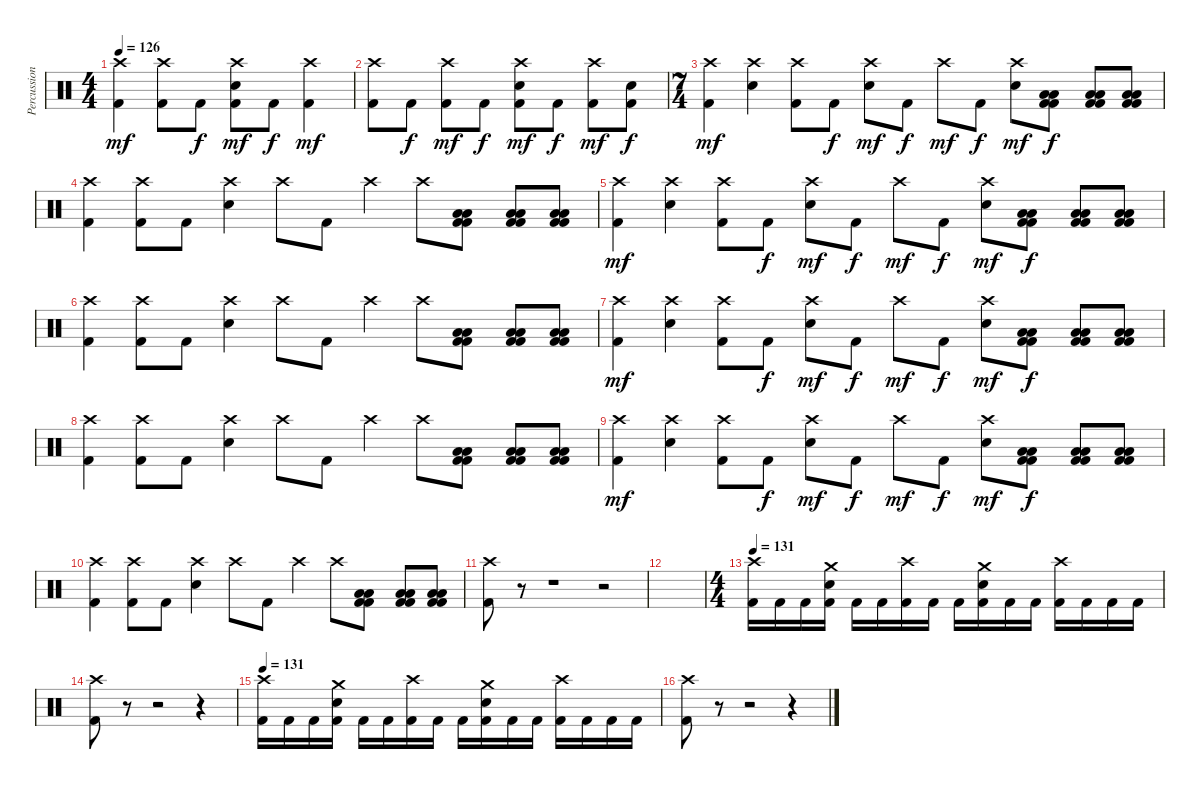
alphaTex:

\track ("Percussion" "Percussion") {instrument percussion}
\staff {score}
\articulation defaults
\ts (4 4)
\tempo 126
\clef neutral
\ks c
("Crash high (hit)" "Kick (hit) 2").4{dy mf} ("Crash high (hit)" "Kick (hit) 2").8 "Kick (hit) 2".8{dy f} ("Crash high (hit)" "Electric Snare (hit)" "Kick (hit) 2").8{dy mf} "Kick (hit) 2".8{dy f} ("Crash high (hit)" "Kick (hit) 2").4{dy mf} |
("Crash high (hit)" "Kick (hit) 2").8 "Kick (hit) 2".8{dy f} ("Crash high (hit)" "Kick (hit) 2").8{dy mf} "Kick (hit) 2".8{dy f} ("Crash high (hit)" "Electric Snare (hit)" "Kick (hit) 2").8{dy mf} "Kick (hit) 2".8{dy f} ("Crash high (hit)" "Kick (hit) 2").8{dy mf} ("Electric Snare (hit)" "Kick (hit) 2").8{dy f} |
\ts (7 4)
("Crash high (hit)" "Kick (hit) 2").4{dy mf} ("Crash high (hit)" "Electric Snare (hit)").4 ("Crash high (hit)" "Kick (hit) 2").8 "Kick (hit) 2".8{dy f} ("Crash high (hit)" "Electric Snare (hit)").8{dy mf} "Kick (hit) 2".8{dy f} "Crash high (hit)".8{dy mf} "Kick (hit) 2".8{dy f} ("Crash high (hit)" "Electric Snare (hit)").8{dy mf} ("Low Floor Tom (hit)" "Low Floor Tom (hit)" "Kick (hit) 2" "Kick (hit) 2").8{dy f} ("Low Floor Tom (hit)" "Low Floor Tom (hit)" "Kick (hit) 2" "Kick (hit) 2").8 ("Low Floor Tom (hit)" "Low Floor Tom (hit)" "Kick (hit) 2" "Kick (hit) 2").8 |
("Crash high (hit)" "Kick (hit) 2").4 ("Crash high (hit)" "Kick (hit) 2").8 "Kick (hit) 2".8 ("Crash high (hit)" "Electric Snare (hit)").4 "Crash high (hit)".8 "Kick (hit) 2".8 "Crash high (hit)".4 "Crash high (hit)".8 ("Low Floor Tom (hit)" "Low Floor Tom (hit)" "Kick (hit) 2" "Kick (hit) 2").8 ("Low Floor Tom (hit)" "Low Floor Tom (hit)" "Kick (hit) 2" "Kick (hit) 2").8 ("Low Floor Tom (hit)" "Low Floor Tom (hit)" "Kick (hit) 2" "Kick (hit) 2").8 |
("Crash high (hit)" "Kick (hit) 2").4{dy mf} ("Crash high (hit)" "Electric Snare (hit)").4 ("Crash high (hit)" "Kick (hit) 2").8 "Kick (hit) 2".8{dy f} ("Crash high (hit)" "Electric Snare (hit)").8{dy mf} "Kick (hit) 2".8{dy f} "Crash high (hit)".8{dy mf} "Kick (hit) 2".8{dy f} ("Crash high (hit)" "Electric Snare (hit)").8{dy mf} ("Low Floor Tom (hit)" "Low Floor Tom (hit)" "Kick (hit) 2" "Kick (hit) 2").8{dy f} ("Low Floor Tom (hit)" "Low Floor Tom (hit)" "Kick (hit) 2" "Kick (hit) 2").8 ("Low Floor Tom (hit)" "Low Floor Tom (hit)" "Kick (hit) 2" "Kick (hit) 2").8 |
("Crash high (hit)" "Kick (hit) 2").4 ("Crash high (hit)" "Kick (hit) 2").8 "Kick (hit) 2".8 ("Crash high (hit)" "Electric Snare (hit)").4 "Crash high (hit)".8 "Kick (hit) 2".8 "Crash high (hit)".4 "Crash high (hit)".8 ("Low Floor Tom (hit)" "Low Floor Tom (hit)" "Kick (hit) 2" "Kick (hit) 2").8 ("Low Floor Tom (hit)" "Low Floor Tom (hit)" "Kick (hit) 2" "Kick (hit) 2").8 ("Low Floor Tom (hit)" "Low Floor Tom (hit)" "Kick (hit) 2" "Kick (hit) 2").8 |
("Crash high (hit)" "Kick (hit) 2").4{dy mf} ("Crash high (hit)" "Electric Snare (hit)").4 ("Crash high (hit)" "Kick (hit) 2").8 "Kick (hit) 2".8{dy f} ("Crash high (hit)" "Electric Snare (hit)").8{dy mf} "Kick (hit) 2".8{dy f} "Crash high (hit)".8{dy mf} "Kick (hit) 2".8{dy f} ("Crash high (hit)" "Electric Snare (hit)").8{dy mf} ("Low Floor Tom (hit)" "Low Floor Tom (hit)" "Kick (hit) 2" "Kick (hit) 2").8{dy f} ("Low Floor Tom (hit)" "Low Floor Tom (hit)" "Kick (hit) 2" "Kick (hit) 2").8 ("Low Floor Tom (hit)" "Low Floor Tom (hit)" "Kick (hit) 2" "Kick (hit) 2").8 |
("Crash high (hit)" "Kick (hit) 2").4 ("Crash high (hit)" "Kick (hit) 2").8 "Kick (hit) 2".8 ("Crash high (hit)" "Electric Snare (hit)").4 "Crash high (hit)".8 "Kick (hit) 2".8 "Crash high (hit)".4 "Crash high (hit)".8 ("Low Floor Tom (hit)" "Low Floor Tom (hit)" "Kick (hit) 2" "Kick (hit) 2").8 ("Low Floor Tom (hit)" "Low Floor Tom (hit)" "Kick (hit) 2" "Kick (hit) 2").8 ("Low Floor Tom (hit)" "Low Floor Tom (hit)" "Kick (hit) 2" "Kick (hit) 2").8 |
("Crash high (hit)" "Kick (hit) 2").4{dy mf} ("Crash high (hit)" "Electric Snare (hit)").4 ("Crash high (hit)" "Kick (hit) 2").8 "Kick (hit) 2".8{dy f} ("Crash high (hit)" "Electric Snare (hit)").8{dy mf} "Kick (hit) 2".8{dy f} "Crash high (hit)".8{dy mf} "Kick (hit) 2".8{dy f} ("Crash high (hit)" "Electric Snare (hit)").8{dy mf} ("Low Floor Tom (hit)" "Low Floor Tom (hit)" "Kick (hit) 2" "Kick (hit) 2").8{dy f} ("Low Floor Tom (hit)" "Low Floor Tom (hit)" "Kick (hit) 2" "Kick (hit) 2").8 ("Low Floor Tom (hit)" "Low Floor Tom (hit)" "Kick (hit) 2" "Kick (hit) 2").8 |
("Crash high (hit)" "Kick (hit) 2").4 ("Crash high (hit)" "Kick (hit) 2").8 "Kick (hit) 2".8 ("Crash high (hit)" "Electric Snare (hit)").4 "Crash high (hit)".8 "Kick (hit) 2".8 "Crash high (hit)".4 "Crash high (hit)".8 ("Low Floor Tom (hit)" "Low Floor Tom (hit)" "Kick (hit) 2" "Kick (hit) 2").8 ("Low Floor Tom (hit)" "Low Floor Tom (hit)" "Kick (hit) 2" "Kick (hit) 2").8 ("Low Floor Tom (hit)" "Low Floor Tom (hit)" "Kick (hit) 2" "Kick (hit) 2").8 |
("Crash high (hit)" "Kick (hit) 2").8 r.8{volume 0} r.1 r.2 |
|
\ts (4 4)
\tempo 131
("Crash high (hit)" "Kick (hit) 2").16{volume 13} "Kick (hit) 2".16 "Kick (hit) 2".16 ("Crash medium (hit)" "Electric Snare (hit)" "Kick (hit) 2").16 "Kick (hit) 2".16 "Kick (hit) 2".16 ("Crash high (hit)" "Kick (hit) 2").16 "Kick (hit) 2".16 "Kick (hit) 2".16 ("Crash medium (hit)" "Electric Snare (hit)" "Kick (hit) 2").16 "Kick (hit) 2".16 "Kick (hit) 2".16 ("Crash high (hit)" "Kick (hit) 2").16 "Kick (hit) 2".16 "Kick (hit) 2".16 "Kick (hit) 2".16 |
("Crash high (hit)" "Kick (hit) 2").8 r.8{volume 0} r.2 r.4 |
\tempo 131
("Crash high (hit)" "Kick (hit) 2").16{volume 13} "Kick (hit) 2".16 "Kick (hit) 2".16 ("Crash medium (hit)" "Electric Snare (hit)" "Kick (hit) 2").16 "Kick (hit) 2".16 "Kick (hit) 2".16 ("Crash high (hit)" "Kick (hit) 2").16 "Kick (hit) 2".16 "Kick (hit) 2".16 ("Crash medium (hit)" "Electric Snare (hit)" "Kick (hit) 2").16 "Kick (hit) 2".16 "Kick (hit) 2".16 ("Crash high (hit)" "Kick (hit) 2").16 "Kick (hit) 2".16 "Kick (hit) 2".16 "Kick (hit) 2".16 |
("Crash high (hit)" "Kick (hit) 2").8 r.8{volume 0} r.2 r.4
